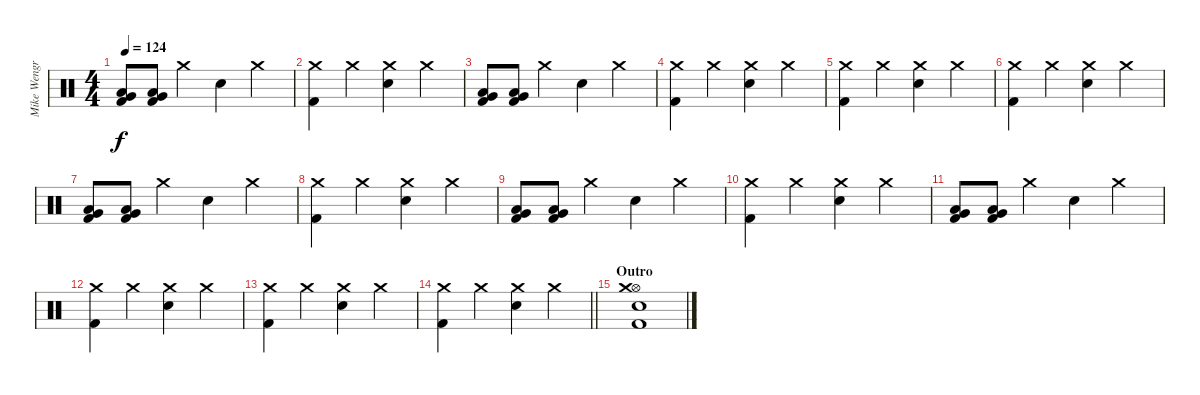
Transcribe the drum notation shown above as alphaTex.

\track ("Mike Wengren" "Mike Wengr") {instrument percussion}
\staff {score}
\articulation defaults
\ts (4 4)
\tempo 124
\clef neutral
\ks c
("Kick (hit) 2" "Very Low Tom (hit)" "Low Tom (hit)").8{dy f} ("Kick (hit) 2" "Very Low Tom (hit)" "Low Tom (hit)").8 "Crash medium (hit)".4 "Electric Snare (hit)".4 "Crash medium (hit)".4 |
("Kick (hit) 2" "Crash medium (hit)").4 "Crash medium (hit)".4 ("Electric Snare (hit)" "Crash medium (hit)").4 "Crash medium (hit)".4 |
("Kick (hit) 2" "Very Low Tom (hit)" "Low Tom (hit)").8 ("Kick (hit) 2" "Very Low Tom (hit)" "Low Tom (hit)").8 "Crash medium (hit)".4 "Electric Snare (hit)".4 "Crash medium (hit)".4 |
("Kick (hit) 2" "Crash medium (hit)").4 "Crash medium (hit)".4 ("Electric Snare (hit)" "Crash medium (hit)").4 "Crash medium (hit)".4 |
("Kick (hit) 2" "Crash medium (hit)").4 "Crash medium (hit)".4 ("Electric Snare (hit)" "Crash medium (hit)").4 "Crash medium (hit)".4 |
("Kick (hit) 2" "Crash medium (hit)").4 "Crash medium (hit)".4 ("Electric Snare (hit)" "Crash medium (hit)").4 "Crash medium (hit)".4 |
("Kick (hit) 2" "Very Low Tom (hit)" "Low Tom (hit)").8 ("Kick (hit) 2" "Very Low Tom (hit)" "Low Tom (hit)").8 "Crash medium (hit)".4 "Electric Snare (hit)".4 "Crash medium (hit)".4 |
("Kick (hit) 2" "Crash medium (hit)").4 "Crash medium (hit)".4 ("Electric Snare (hit)" "Crash medium (hit)").4 "Crash medium (hit)".4 |
("Kick (hit) 2" "Very Low Tom (hit)" "Low Tom (hit)").8 ("Kick (hit) 2" "Very Low Tom (hit)" "Low Tom (hit)").8 "Crash medium (hit)".4 "Electric Snare (hit)".4 "Crash medium (hit)".4 |
("Kick (hit) 2" "Crash medium (hit)").4 "Crash medium (hit)".4 ("Electric Snare (hit)" "Crash medium (hit)").4 "Crash medium (hit)".4 |
("Kick (hit) 2" "Very Low Tom (hit)" "Low Tom (hit)").8 ("Kick (hit) 2" "Very Low Tom (hit)" "Low Tom (hit)").8 "Crash medium (hit)".4 "Electric Snare (hit)".4 "Crash medium (hit)".4 |
("Kick (hit) 2" "Crash medium (hit)").4 "Crash medium (hit)".4 ("Electric Snare (hit)" "Crash medium (hit)").4 "Crash medium (hit)".4 |
("Kick (hit) 2" "Crash medium (hit)").4 "Crash medium (hit)".4 ("Electric Snare (hit)" "Crash medium (hit)").4 "Crash medium (hit)".4 |
\barLineRight lightlight
("Kick (hit) 2" "Crash medium (hit)").4 "Crash medium (hit)".4 ("Electric Snare (hit)" "Crash medium (hit)").4 "Crash medium (hit)".4 |
\section ("" "Outro")
("Kick (hit) 2" "Electric Snare (hit)" "Hi-Hat (open)" "Crash medium (hit)").1
